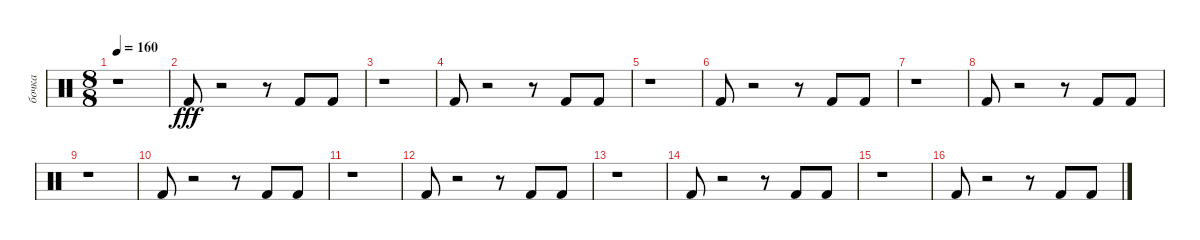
\track ("бочка" "бочка") {instrument percussion}
\staff {score}
\articulation defaults
\ts (8 8)
\tempo 160
\clef neutral
\ks c
r.1{dy fff} |
"Kick (hit) 2".8 r.2 r.8 "Kick (hit) 2".8 "Kick (hit) 2".8 |
r.1 |
"Kick (hit) 2".8 r.2 r.8 "Kick (hit) 2".8 "Kick (hit) 2".8 |
r.1 |
"Kick (hit) 2".8 r.2 r.8 "Kick (hit) 2".8 "Kick (hit) 2".8 |
r.1 |
"Kick (hit) 2".8 r.2 r.8 "Kick (hit) 2".8 "Kick (hit) 2".8 |
r.1 |
"Kick (hit) 2".8 r.2 r.8 "Kick (hit) 2".8 "Kick (hit) 2".8 |
r.1 |
"Kick (hit) 2".8 r.2 r.8 "Kick (hit) 2".8 "Kick (hit) 2".8 |
r.1 |
"Kick (hit) 2".8 r.2 r.8 "Kick (hit) 2".8 "Kick (hit) 2".8 |
r.1 |
"Kick (hit) 2".8 r.2 r.8 "Kick (hit) 2".8 "Kick (hit) 2".8
